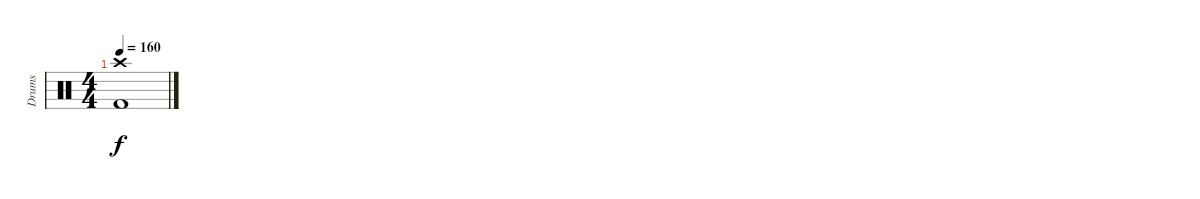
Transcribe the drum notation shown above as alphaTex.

\track ("Drums" "Drums") {instrument percussion}
\staff {score}
\articulation defaults
\ts (4 4)
\tempo 160
\clef neutral
\ks c
("Crash high (hit)" "Kick (hit) 2").1{dy f}
